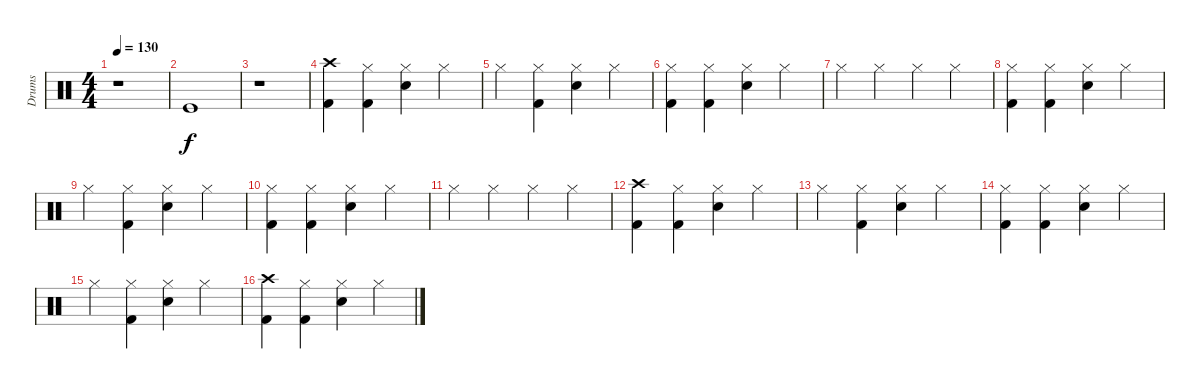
\track ("Drums" "Drums") {instrument percussion}
\staff {score}
\articulation defaults
\ts (4 4)
\tempo 130
\clef neutral
\ks c
r.1{dy f} |
"Kick (hit)".1 |
r.1 |
("Crash high (hit)" "Kick (hit) 2").4 ("Hi-Hat (closed)" "Kick (hit) 2").4 ("Hi-Hat (closed)" "Electric Snare (hit)").4 "Hi-Hat (closed)".4 |
"Hi-Hat (closed)".4 ("Hi-Hat (closed)" "Kick (hit) 2").4 ("Hi-Hat (closed)" "Electric Snare (hit)").4 "Hi-Hat (closed)".4 |
("Hi-Hat (closed)" "Kick (hit) 2").4 ("Hi-Hat (closed)" "Kick (hit) 2").4 ("Hi-Hat (closed)" "Electric Snare (hit)").4 "Hi-Hat (closed)".4 |
"Hi-Hat (closed)".4 "Hi-Hat (closed)".4 "Hi-Hat (closed)".4 "Hi-Hat (closed)".4 |
("Hi-Hat (closed)" "Kick (hit) 2").4 ("Hi-Hat (closed)" "Kick (hit) 2").4 ("Hi-Hat (closed)" "Electric Snare (hit)").4 "Hi-Hat (closed)".4 |
"Hi-Hat (closed)".4 ("Hi-Hat (closed)" "Kick (hit) 2").4 ("Hi-Hat (closed)" "Electric Snare (hit)").4 "Hi-Hat (closed)".4 |
("Hi-Hat (closed)" "Kick (hit) 2").4 ("Hi-Hat (closed)" "Kick (hit) 2").4 ("Hi-Hat (closed)" "Electric Snare (hit)").4 "Hi-Hat (closed)".4 |
"Hi-Hat (closed)".4 "Hi-Hat (closed)".4 "Hi-Hat (closed)".4 "Hi-Hat (closed)".4 |
\section ("" "")
("Crash high (hit)" "Kick (hit) 2").4 ("Hi-Hat (closed)" "Kick (hit) 2").4 ("Hi-Hat (closed)" "Electric Snare (hit)").4 "Hi-Hat (closed)".4 |
"Hi-Hat (closed)".4 ("Hi-Hat (closed)" "Kick (hit) 2").4 ("Hi-Hat (closed)" "Electric Snare (hit)").4 "Hi-Hat (closed)".4 |
("Hi-Hat (closed)" "Kick (hit) 2").4 ("Hi-Hat (closed)" "Kick (hit) 2").4 ("Hi-Hat (closed)" "Electric Snare (hit)").4 "Hi-Hat (closed)".4 |
"Hi-Hat (closed)".4 ("Hi-Hat (closed)" "Kick (hit) 2").4 ("Hi-Hat (closed)" "Electric Snare (hit)").4 "Hi-Hat (closed)".4 |
("Crash high (hit)" "Kick (hit) 2").4 ("Hi-Hat (closed)" "Kick (hit) 2").4 ("Hi-Hat (closed)" "Electric Snare (hit)").4 "Hi-Hat (closed)".4
